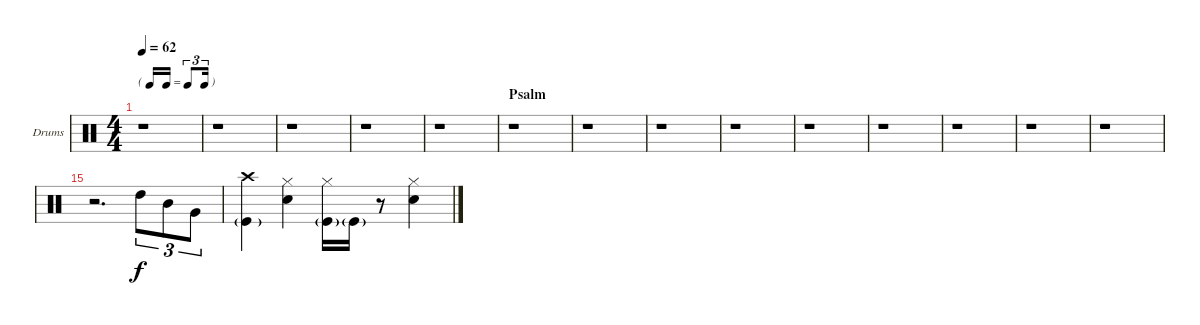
\bracketExtendMode nobrackets
\firstSystemTrackNameOrientation horizontal
\otherSystemsTrackNameOrientation horizontal
\defaultBarNumberDisplay FirstOfSystem
\track ("Drumkit" "Drums") {instrument percussion}
\staff {score}
\articulation defaults
\ts (4 4)
\tf triplet16th
\tempo 62
\clef neutral
\ks c
r.1{dy f} |
r.1 |
r.1 |
r.1 |
r.1 |
\section ("" "Psalm")
\scale
0.541445 r.1 |
\scale
0.458581 r.1 |
r.1 |
r.1 |
r.1 |
r.1 |
r.1 |
r.1 |
r.1 |
r.2{d} "High Tom (hit)".8{tu (3 2)} "Mid Tom (hit)".8{tu (3 2)} "Very Low Tom (hit)".8{tu (3 2)} |
("Kick (hit)"{g} "Crash high (hit)").4 ("Snare (hit) 2" "Hi-Hat (closed)").4 ("Kick (hit)"{g} "Hi-Hat (closed)").16 "Kick (hit)"{g}.16 r.8 ("Snare (hit) 2" "Hi-Hat (closed)").4
